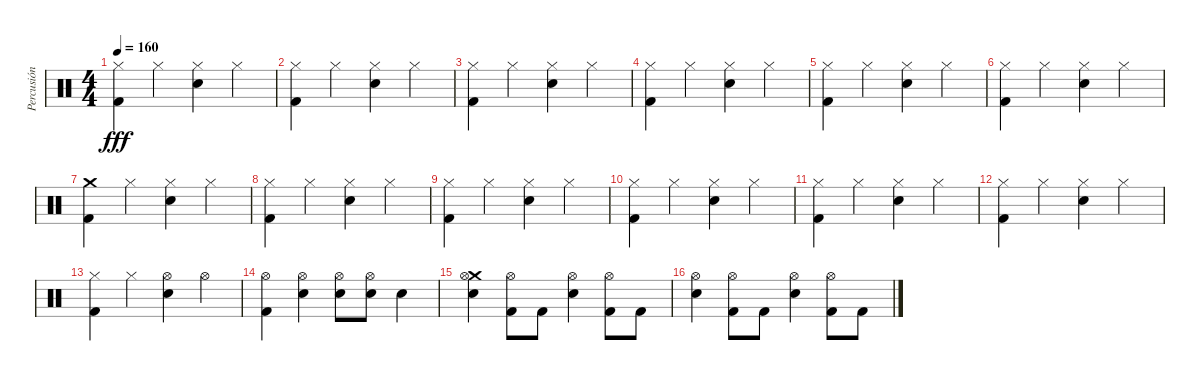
\track ("Percusión" "Percusión") {instrument percussion}
\staff {score}
\articulation defaults
\ts (4 4)
\tempo 160
\clef neutral
\ks c
("Hi-Hat (closed)" "Kick (hit) 2").4{dy fff} "Hi-Hat (closed)".4 ("Hi-Hat (closed)" "Snare (hit) 2").4 "Hi-Hat (closed)".4 |
("Hi-Hat (closed)" "Kick (hit) 2").4 "Hi-Hat (closed)".4 ("Hi-Hat (closed)" "Snare (hit) 2").4 "Hi-Hat (closed)".4 |
("Hi-Hat (closed)" "Kick (hit) 2").4 "Hi-Hat (closed)".4 ("Hi-Hat (closed)" "Snare (hit) 2").4 "Hi-Hat (closed)".4 |
("Hi-Hat (closed)" "Kick (hit) 2").4 "Hi-Hat (closed)".4 ("Hi-Hat (closed)" "Snare (hit) 2").4 "Hi-Hat (closed)".4 |
("Hi-Hat (closed)" "Kick (hit) 2").4 "Hi-Hat (closed)".4 ("Hi-Hat (closed)" "Snare (hit) 2").4 "Hi-Hat (closed)".4 |
("Hi-Hat (closed)" "Kick (hit) 2").4 "Hi-Hat (closed)".4 ("Hi-Hat (closed)" "Snare (hit) 2").4 "Hi-Hat (closed)".4 |
("Crash medium (hit)" "Kick (hit) 2").4 "Hi-Hat (closed)".4 ("Hi-Hat (closed)" "Snare (hit) 2").4 "Hi-Hat (closed)".4 |
("Hi-Hat (closed)" "Kick (hit) 2").4 "Hi-Hat (closed)".4 ("Hi-Hat (closed)" "Snare (hit) 2").4 "Hi-Hat (closed)".4 |
("Hi-Hat (closed)" "Kick (hit) 2").4 "Hi-Hat (closed)".4 ("Hi-Hat (closed)" "Snare (hit) 2").4 "Hi-Hat (closed)".4 |
("Hi-Hat (closed)" "Kick (hit) 2").4 "Hi-Hat (closed)".4 ("Hi-Hat (closed)" "Snare (hit) 2").4 "Hi-Hat (closed)".4 |
("Hi-Hat (closed)" "Kick (hit) 2").4 "Hi-Hat (closed)".4 ("Hi-Hat (closed)" "Snare (hit) 2").4 "Hi-Hat (closed)".4 |
("Hi-Hat (closed)" "Kick (hit) 2").4 "Hi-Hat (closed)".4 ("Hi-Hat (closed)" "Snare (hit) 2").4 "Hi-Hat (closed)".4 |
("Hi-Hat (closed)" "Kick (hit) 2").4 "Hi-Hat (closed)".4 ("Hi-Hat (open)" "Snare (hit) 2").4 "Hi-Hat (open)".4 |
("Hi-Hat (open)" "Kick (hit) 2").4 ("Hi-Hat (open)" "Snare (hit) 2").4 ("Hi-Hat (open)" "Snare (hit) 2").8 ("Hi-Hat (open)" "Snare (hit) 2").8 "Snare (hit) 2".4 |
("Crash medium (hit)" "Hi-Hat (open)" "Snare (hit) 2").4 ("Hi-Hat (open)" "Kick (hit) 2").8 "Kick (hit) 2".8 ("Hi-Hat (open)" "Snare (hit) 2").4 ("Hi-Hat (open)" "Kick (hit) 2").8 "Kick (hit) 2".8 |
("Hi-Hat (open)" "Snare (hit) 2").4 ("Hi-Hat (open)" "Kick (hit) 2").8 "Kick (hit) 2".8 ("Hi-Hat (open)" "Snare (hit) 2").4 ("Hi-Hat (open)" "Kick (hit) 2").8 "Kick (hit) 2".8
